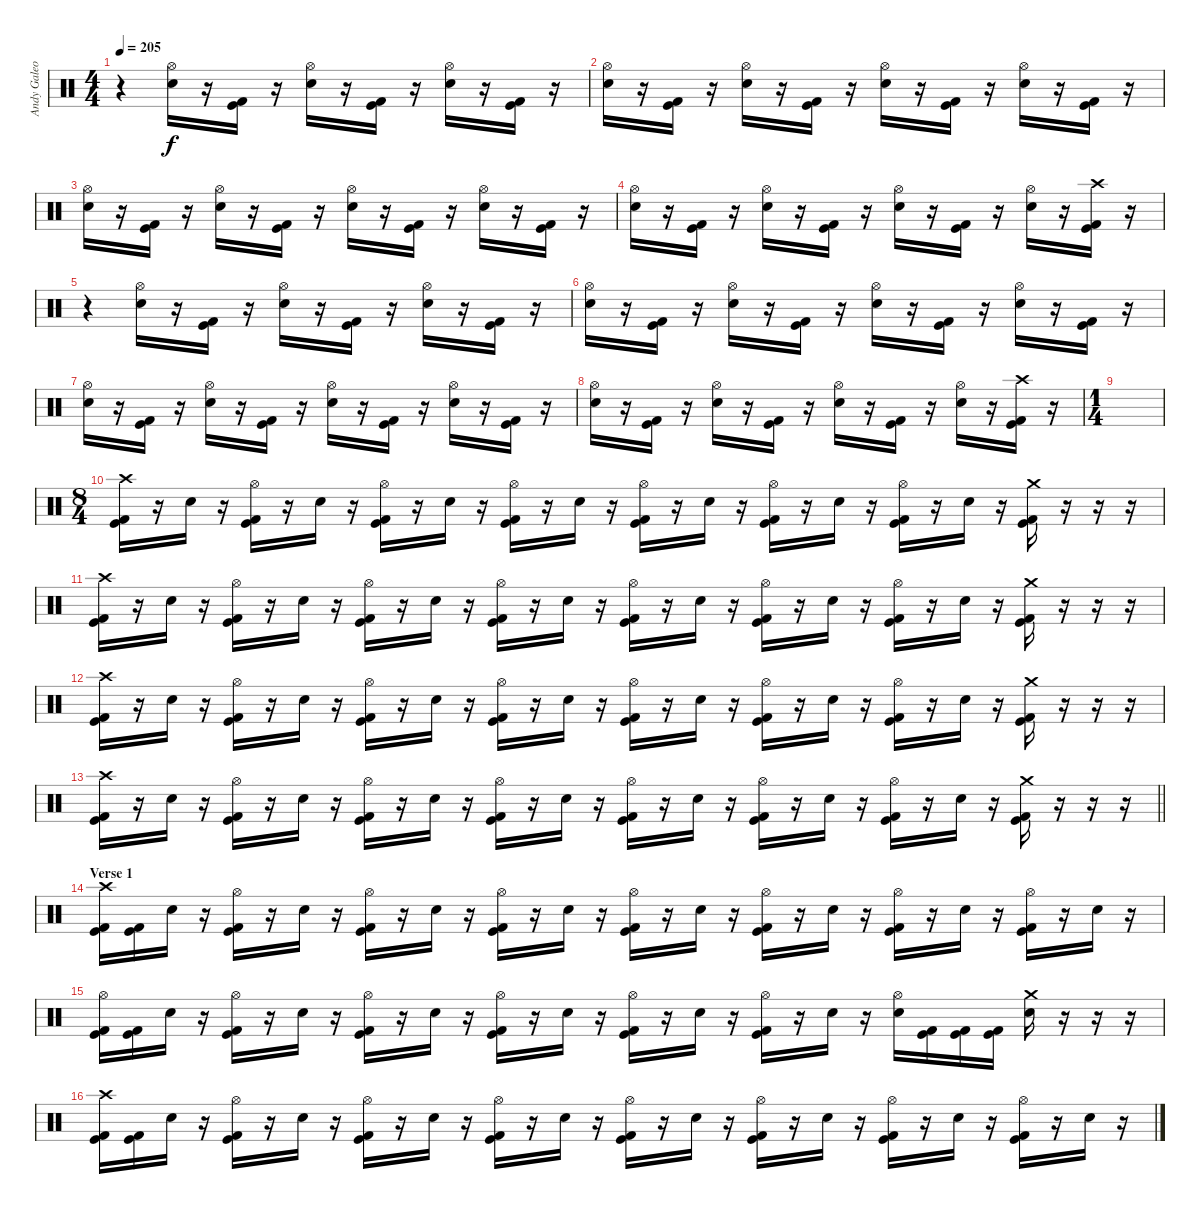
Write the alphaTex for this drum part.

\track ("Andy Galeon - Drums" "Andy Galeo") {instrument percussion}
\staff {score}
\articulation defaults
\ts (4 4)
\tempo 205
\clef neutral
\ks c
r.4{dy f} ("Hi-Hat (open)" "Electric Snare (hit)").16 r.16 ("Kick (hit) 2" "Kick (hit)").16 r.16 ("Hi-Hat (open)" "Electric Snare (hit)").16 r.16 ("Kick (hit) 2" "Kick (hit)").16 r.16 ("Hi-Hat (open)" "Electric Snare (hit)").16 r.16 ("Kick (hit) 2" "Kick (hit)").16 r.16 |
("Hi-Hat (open)" "Electric Snare (hit)").16 r.16 ("Kick (hit) 2" "Kick (hit)").16 r.16 ("Hi-Hat (open)" "Electric Snare (hit)").16 r.16 ("Kick (hit) 2" "Kick (hit)").16 r.16 ("Hi-Hat (open)" "Electric Snare (hit)").16 r.16 ("Kick (hit) 2" "Kick (hit)").16 r.16 ("Hi-Hat (open)" "Electric Snare (hit)").16 r.16 ("Kick (hit) 2" "Kick (hit)").16 r.16 |
("Hi-Hat (open)" "Electric Snare (hit)").16 r.16 ("Kick (hit) 2" "Kick (hit)").16 r.16 ("Hi-Hat (open)" "Electric Snare (hit)").16 r.16 ("Kick (hit) 2" "Kick (hit)").16 r.16 ("Hi-Hat (open)" "Electric Snare (hit)").16 r.16 ("Kick (hit) 2" "Kick (hit)").16 r.16 ("Hi-Hat (open)" "Electric Snare (hit)").16 r.16 ("Kick (hit) 2" "Kick (hit)").16 r.16 |
("Hi-Hat (open)" "Electric Snare (hit)").16 r.16 ("Kick (hit) 2" "Kick (hit)").16 r.16 ("Hi-Hat (open)" "Electric Snare (hit)").16 r.16 ("Kick (hit) 2" "Kick (hit)").16 r.16 ("Hi-Hat (open)" "Electric Snare (hit)").16 r.16 ("Kick (hit) 2" "Kick (hit)").16 r.16 ("Hi-Hat (open)" "Electric Snare (hit)").16 r.16 ("Crash high (hit)" "Kick (hit) 2" "Kick (hit)").16 r.16 |
r.4 ("Hi-Hat (open)" "Electric Snare (hit)").16 r.16 ("Kick (hit) 2" "Kick (hit)").16 r.16 ("Hi-Hat (open)" "Electric Snare (hit)").16 r.16 ("Kick (hit) 2" "Kick (hit)").16 r.16 ("Hi-Hat (open)" "Electric Snare (hit)").16 r.16 ("Kick (hit) 2" "Kick (hit)").16 r.16 |
("Hi-Hat (open)" "Electric Snare (hit)").16 r.16 ("Kick (hit) 2" "Kick (hit)").16 r.16 ("Hi-Hat (open)" "Electric Snare (hit)").16 r.16 ("Kick (hit) 2" "Kick (hit)").16 r.16 ("Hi-Hat (open)" "Electric Snare (hit)").16 r.16 ("Kick (hit) 2" "Kick (hit)").16 r.16 ("Hi-Hat (open)" "Electric Snare (hit)").16 r.16 ("Kick (hit) 2" "Kick (hit)").16 r.16 |
("Hi-Hat (open)" "Electric Snare (hit)").16 r.16 ("Kick (hit) 2" "Kick (hit)").16 r.16 ("Hi-Hat (open)" "Electric Snare (hit)").16 r.16 ("Kick (hit) 2" "Kick (hit)").16 r.16 ("Hi-Hat (open)" "Electric Snare (hit)").16 r.16 ("Kick (hit) 2" "Kick (hit)").16 r.16 ("Hi-Hat (open)" "Electric Snare (hit)").16 r.16 ("Kick (hit) 2" "Kick (hit)").16 r.16 |
("Hi-Hat (open)" "Electric Snare (hit)").16 r.16 ("Kick (hit) 2" "Kick (hit)").16 r.16 ("Hi-Hat (open)" "Electric Snare (hit)").16 r.16 ("Kick (hit) 2" "Kick (hit)").16 r.16 ("Hi-Hat (open)" "Electric Snare (hit)").16 r.16 ("Kick (hit) 2" "Kick (hit)").16 r.16 ("Hi-Hat (open)" "Electric Snare (hit)").16 r.16 ("Crash high (hit)" "Kick (hit) 2" "Kick (hit)").16 r.16 |
\ts (1 4)
|
\ts (8 4)
("Crash high (hit)" "Kick (hit) 2" "Kick (hit)").16 r.16 "Electric Snare (hit)".16 r.16 ("Hi-Hat (open)" "Kick (hit) 2" "Kick (hit)").16 r.16 "Electric Snare (hit)".16 r.16 ("Hi-Hat (open)" "Kick (hit) 2" "Kick (hit)").16 r.16 "Electric Snare (hit)".16 r.16 ("Hi-Hat (open)" "Kick (hit) 2" "Kick (hit)").16 r.16 "Electric Snare (hit)".16 r.16 ("Hi-Hat (open)" "Kick (hit) 2" "Kick (hit)").16 r.16 "Electric Snare (hit)".16 r.16 ("Hi-Hat (open)" "Kick (hit) 2" "Kick (hit)").16 r.16 "Electric Snare (hit)".16 r.16 ("Hi-Hat (open)" "Kick (hit) 2" "Kick (hit)").16 r.16 "Electric Snare (hit)".16 r.16 ("Crash medium (hit)" "Kick (hit)" "Kick (hit) 2").16 r.16 r.16 r.16 |
("Crash high (hit)" "Kick (hit) 2" "Kick (hit)").16 r.16 "Electric Snare (hit)".16 r.16 ("Hi-Hat (open)" "Kick (hit) 2" "Kick (hit)").16 r.16 "Electric Snare (hit)".16 r.16 ("Hi-Hat (open)" "Kick (hit) 2" "Kick (hit)").16 r.16 "Electric Snare (hit)".16 r.16 ("Hi-Hat (open)" "Kick (hit) 2" "Kick (hit)").16 r.16 "Electric Snare (hit)".16 r.16 ("Hi-Hat (open)" "Kick (hit) 2" "Kick (hit)").16 r.16 "Electric Snare (hit)".16 r.16 ("Hi-Hat (open)" "Kick (hit) 2" "Kick (hit)").16 r.16 "Electric Snare (hit)".16 r.16 ("Hi-Hat (open)" "Kick (hit) 2" "Kick (hit)").16 r.16 "Electric Snare (hit)".16 r.16 ("Crash medium (hit)" "Kick (hit)" "Kick (hit) 2").16 r.16 r.16 r.16 |
("Crash high (hit)" "Kick (hit) 2" "Kick (hit)").16 r.16 "Electric Snare (hit)".16 r.16 ("Hi-Hat (open)" "Kick (hit) 2" "Kick (hit)").16 r.16 "Electric Snare (hit)".16 r.16 ("Hi-Hat (open)" "Kick (hit) 2" "Kick (hit)").16 r.16 "Electric Snare (hit)".16 r.16 ("Hi-Hat (open)" "Kick (hit) 2" "Kick (hit)").16 r.16 "Electric Snare (hit)".16 r.16 ("Hi-Hat (open)" "Kick (hit) 2" "Kick (hit)").16 r.16 "Electric Snare (hit)".16 r.16 ("Hi-Hat (open)" "Kick (hit) 2" "Kick (hit)").16 r.16 "Electric Snare (hit)".16 r.16 ("Hi-Hat (open)" "Kick (hit) 2" "Kick (hit)").16 r.16 "Electric Snare (hit)".16 r.16 ("Crash medium (hit)" "Kick (hit)" "Kick (hit) 2").16 r.16 r.16 r.16 |
\barLineRight lightlight
("Crash high (hit)" "Kick (hit) 2" "Kick (hit)").16 r.16 "Electric Snare (hit)".16 r.16 ("Hi-Hat (open)" "Kick (hit) 2" "Kick (hit)").16 r.16 "Electric Snare (hit)".16 r.16 ("Hi-Hat (open)" "Kick (hit) 2" "Kick (hit)").16 r.16 "Electric Snare (hit)".16 r.16 ("Hi-Hat (open)" "Kick (hit) 2" "Kick (hit)").16 r.16 "Electric Snare (hit)".16 r.16 ("Hi-Hat (open)" "Kick (hit) 2" "Kick (hit)").16 r.16 "Electric Snare (hit)".16 r.16 ("Hi-Hat (open)" "Kick (hit) 2" "Kick (hit)").16 r.16 "Electric Snare (hit)".16 r.16 ("Hi-Hat (open)" "Kick (hit) 2" "Kick (hit)").16 r.16 "Electric Snare (hit)".16 r.16 ("Crash medium (hit)" "Kick (hit)" "Kick (hit) 2").16 r.16 r.16 r.16 |
\section ("" "Verse 1")
("Crash high (hit)" "Kick (hit) 2" "Kick (hit)").16 ("Kick (hit) 2" "Kick (hit)").16 "Electric Snare (hit)".16 r.16 ("Hi-Hat (open)" "Kick (hit) 2" "Kick (hit)").16 r.16 "Electric Snare (hit)".16 r.16 ("Hi-Hat (open)" "Kick (hit) 2" "Kick (hit)").16 r.16 "Electric Snare (hit)".16 r.16 ("Hi-Hat (open)" "Kick (hit) 2" "Kick (hit)").16 r.16 "Electric Snare (hit)".16 r.16 ("Hi-Hat (open)" "Kick (hit) 2" "Kick (hit)").16 r.16 "Electric Snare (hit)".16 r.16 ("Hi-Hat (open)" "Kick (hit) 2" "Kick (hit)").16 r.16 "Electric Snare (hit)".16 r.16 ("Hi-Hat (open)" "Kick (hit) 2" "Kick (hit)").16 r.16 "Electric Snare (hit)".16 r.16 ("Hi-Hat (open)" "Kick (hit)" "Kick (hit) 2").16 r.16 "Electric Snare (hit)".16 r.16 |
("Hi-Hat (open)" "Kick (hit) 2" "Kick (hit)").16 ("Kick (hit) 2" "Kick (hit)").16 "Electric Snare (hit)".16 r.16 ("Hi-Hat (open)" "Kick (hit) 2" "Kick (hit)").16 r.16 "Electric Snare (hit)".16 r.16 ("Hi-Hat (open)" "Kick (hit) 2" "Kick (hit)").16 r.16 "Electric Snare (hit)".16 r.16 ("Hi-Hat (open)" "Kick (hit) 2" "Kick (hit)").16 r.16 "Electric Snare (hit)".16 r.16 ("Hi-Hat (open)" "Kick (hit) 2" "Kick (hit)").16 r.16 "Electric Snare (hit)".16 r.16 ("Hi-Hat (open)" "Kick (hit) 2" "Kick (hit)").16 r.16 "Electric Snare (hit)".16 r.16 ("Hi-Hat (open)" "Electric Snare (hit)").16 ("Kick (hit) 2" "Kick (hit)").16 ("Kick (hit) 2" "Kick (hit)").16 ("Kick (hit) 2" "Kick (hit)").16 ("Crash medium (hit)" "Electric Snare (hit)").16 r.16 r.16 r.16 |
("Crash high (hit)" "Kick (hit) 2" "Kick (hit)").16 ("Kick (hit) 2" "Kick (hit)").16 "Electric Snare (hit)".16 r.16 ("Hi-Hat (open)" "Kick (hit) 2" "Kick (hit)").16 r.16 "Electric Snare (hit)".16 r.16 ("Hi-Hat (open)" "Kick (hit) 2" "Kick (hit)").16 r.16 "Electric Snare (hit)".16 r.16 ("Hi-Hat (open)" "Kick (hit) 2" "Kick (hit)").16 r.16 "Electric Snare (hit)".16 r.16 ("Hi-Hat (open)" "Kick (hit) 2" "Kick (hit)").16 r.16 "Electric Snare (hit)".16 r.16 ("Hi-Hat (open)" "Kick (hit) 2" "Kick (hit)").16 r.16 "Electric Snare (hit)".16 r.16 ("Hi-Hat (open)" "Kick (hit) 2" "Kick (hit)").16 r.16 "Electric Snare (hit)".16 r.16 ("Hi-Hat (open)" "Kick (hit)" "Kick (hit) 2").16 r.16 "Electric Snare (hit)".16 r.16
